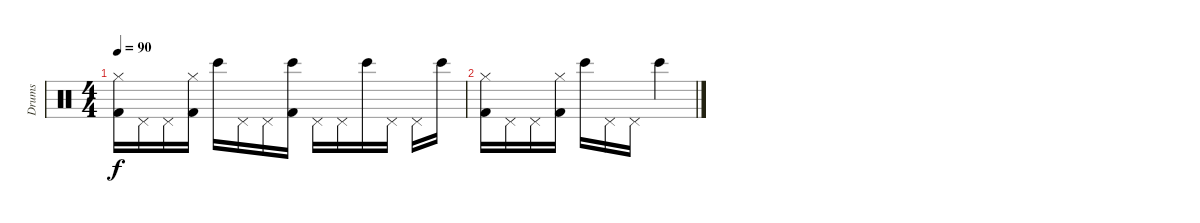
\track ("Drums" "Drums") {instrument percussion}
\staff {score}
\articulation defaults
\ts (4 4)
\tempo 90
\clef neutral
\ks c
("Hi-Hat (closed)" "Kick (hit) 2").16{dy f} "Pedal Hi-Hat (hit)".16 "Pedal Hi-Hat (hit)".16 ("Hi-Hat (closed)" "Kick (hit) 2").16 "Bongo High (hit)".16 "Pedal Hi-Hat (hit)".16 "Pedal Hi-Hat (hit)".16 ("Bongo High (hit)" "Kick (hit) 2").16 "Pedal Hi-Hat (hit)".16 "Pedal Hi-Hat (hit)".16 "Bongo High (hit)".16 "Pedal Hi-Hat (hit)".16 "Pedal Hi-Hat (hit)".16 "Bongo High (hit)".16 |
("Hi-Hat (closed)" "Kick (hit) 2").16 "Pedal Hi-Hat (hit)".16 "Pedal Hi-Hat (hit)".16 ("Hi-Hat (closed)" "Kick (hit) 2").16 "Bongo High (hit)".16 "Pedal Hi-Hat (hit)".16 "Pedal Hi-Hat (hit)".16 "Bongo High (hit)".4
